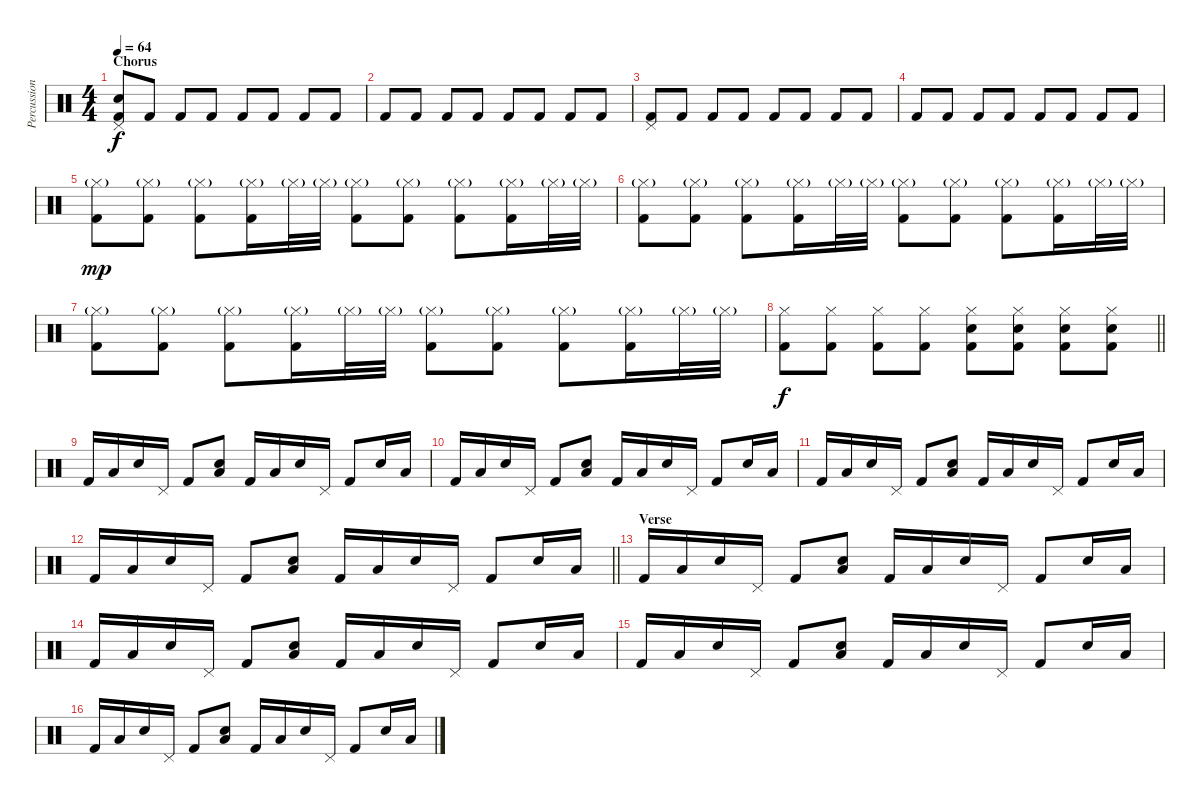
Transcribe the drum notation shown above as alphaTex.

\track ("Percussion" "Percussion") {instrument percussion}
\staff {score}
\articulation defaults
\ts (4 4)
\section ("" "Chorus")
\tempo 64
\clef neutral
\ks c
("Pedal Hi-Hat (hit)" "Snare (hit) 2" "Kick (hit) 2").8{dy f} "Kick (hit) 2".8 "Kick (hit) 2".8 "Kick (hit) 2".8 "Kick (hit) 2".8 "Kick (hit) 2".8 "Kick (hit) 2".8 "Kick (hit) 2".8 |
"Kick (hit) 2".8 "Kick (hit) 2".8 "Kick (hit) 2".8 "Kick (hit) 2".8 "Kick (hit) 2".8 "Kick (hit) 2".8 "Kick (hit) 2".8 "Kick (hit) 2".8 |
("Pedal Hi-Hat (hit)" "Kick (hit) 2").8 "Kick (hit) 2".8 "Kick (hit) 2".8 "Kick (hit) 2".8 "Kick (hit) 2".8 "Kick (hit) 2".8 "Kick (hit) 2".8 "Kick (hit) 2".8 |
"Kick (hit) 2".8 "Kick (hit) 2".8 "Kick (hit) 2".8 "Kick (hit) 2".8 "Kick (hit) 2".8 "Kick (hit) 2".8 "Kick (hit) 2".8 "Kick (hit) 2".8 |
("Hi-Hat (closed)"{g} "Kick (hit) 2").8{dy mp} ("Hi-Hat (closed)"{g} "Kick (hit) 2").8 ("Hi-Hat (closed)"{g} "Kick (hit) 2").8 ("Hi-Hat (closed)"{g} "Kick (hit) 2").16 "Hi-Hat (closed)"{g}.32 "Hi-Hat (closed)"{g}.32 ("Hi-Hat (closed)"{g} "Kick (hit) 2").8 ("Hi-Hat (closed)"{g} "Kick (hit) 2").8 ("Hi-Hat (closed)"{g} "Kick (hit) 2").8 ("Hi-Hat (closed)"{g} "Kick (hit) 2").16 "Hi-Hat (closed)"{g}.32 "Hi-Hat (closed)"{g}.32 |
("Hi-Hat (closed)"{g} "Kick (hit) 2").8 ("Hi-Hat (closed)"{g} "Kick (hit) 2").8 ("Hi-Hat (closed)"{g} "Kick (hit) 2").8 ("Hi-Hat (closed)"{g} "Kick (hit) 2").16 "Hi-Hat (closed)"{g}.32 "Hi-Hat (closed)"{g}.32 ("Hi-Hat (closed)"{g} "Kick (hit) 2").8 ("Hi-Hat (closed)"{g} "Kick (hit) 2").8 ("Hi-Hat (closed)"{g} "Kick (hit) 2").8 ("Hi-Hat (closed)"{g} "Kick (hit) 2").16 "Hi-Hat (closed)"{g}.32 "Hi-Hat (closed)"{g}.32 |
("Hi-Hat (closed)"{g} "Kick (hit) 2").8 ("Hi-Hat (closed)"{g} "Kick (hit) 2").8 ("Hi-Hat (closed)"{g} "Kick (hit) 2").8 ("Hi-Hat (closed)"{g} "Kick (hit) 2").16 "Hi-Hat (closed)"{g}.32 "Hi-Hat (closed)"{g}.32 ("Hi-Hat (closed)"{g} "Kick (hit) 2").8 ("Hi-Hat (closed)"{g} "Kick (hit) 2").8 ("Hi-Hat (closed)"{g} "Kick (hit) 2").8 ("Hi-Hat (closed)"{g} "Kick (hit) 2").16 "Hi-Hat (closed)"{g}.32 "Hi-Hat (closed)"{g}.32 |
\barLineRight lightlight
("Hi-Hat (closed)" "Kick (hit) 2").8{dy f} ("Hi-Hat (closed)" "Kick (hit) 2").8 ("Hi-Hat (closed)" "Kick (hit) 2").8 ("Hi-Hat (closed)" "Kick (hit) 2").8 ("Hi-Hat (closed)" "Snare (hit) 2" "Kick (hit) 2").8 ("Hi-Hat (closed)" "Snare (hit) 2" "Kick (hit) 2").8 ("Hi-Hat (closed)" "Snare (hit) 2" "Kick (hit) 2").8 ("Hi-Hat (closed)" "Snare (hit) 2" "Kick (hit) 2").8 |
"Kick (hit) 2".16 "Low Floor Tom (hit)".16 "Snare (hit) 2".16 "Pedal Hi-Hat (hit)".16 "Kick (hit) 2".8 ("Snare (hit) 2" "Low Floor Tom (hit)").8 "Kick (hit) 2".16 "Low Floor Tom (hit)".16 "Snare (hit) 2".16 "Pedal Hi-Hat (hit)".16 "Kick (hit) 2".8 "Snare (hit) 2".16 "Low Floor Tom (hit)".16 |
"Kick (hit) 2".16 "Low Floor Tom (hit)".16 "Snare (hit) 2".16 "Pedal Hi-Hat (hit)".16 "Kick (hit) 2".8 ("Snare (hit) 2" "Low Floor Tom (hit)").8 "Kick (hit) 2".16 "Low Floor Tom (hit)".16 "Snare (hit) 2".16 "Pedal Hi-Hat (hit)".16 "Kick (hit) 2".8 "Snare (hit) 2".16 "Low Floor Tom (hit)".16 |
"Kick (hit) 2".16 "Low Floor Tom (hit)".16 "Snare (hit) 2".16 "Pedal Hi-Hat (hit)".16 "Kick (hit) 2".8 ("Snare (hit) 2" "Low Floor Tom (hit)").8 "Kick (hit) 2".16 "Low Floor Tom (hit)".16 "Snare (hit) 2".16 "Pedal Hi-Hat (hit)".16 "Kick (hit) 2".8 "Snare (hit) 2".16 "Low Floor Tom (hit)".16 |
\barLineRight lightlight "Kick (hit) 2".16 "Low Floor Tom (hit)".16 "Snare (hit) 2".16 "Pedal Hi-Hat (hit)".16 "Kick (hit) 2".8
("Snare (hit) 2" "Low Floor Tom (hit)").8 "Kick (hit) 2".16 "Low Floor Tom (hit)".16 "Snare (hit) 2".16 "Pedal Hi-Hat (hit)".16 "Kick (hit) 2".8 "Snare (hit) 2".16 "Low Floor Tom (hit)".16 |
\section ("" "Verse")
"Kick (hit) 2".16 "Low Floor Tom (hit)".16 "Snare (hit) 2".16 "Pedal Hi-Hat (hit)".16 "Kick (hit) 2".8 ("Snare (hit) 2" "Low Floor Tom (hit)").8 "Kick (hit) 2".16 "Low Floor Tom (hit)".16 "Snare (hit) 2".16 "Pedal Hi-Hat (hit)".16 "Kick (hit) 2".8 "Snare (hit) 2".16 "Low Floor Tom (hit)".16 |
"Kick (hit) 2".16 "Low Floor Tom (hit)".16 "Snare (hit) 2".16 "Pedal Hi-Hat (hit)".16 "Kick (hit) 2".8 ("Snare (hit) 2" "Low Floor Tom (hit)").8 "Kick (hit) 2".16 "Low Floor Tom (hit)".16 "Snare (hit) 2".16 "Pedal Hi-Hat (hit)".16 "Kick (hit) 2".8 "Snare (hit) 2".16 "Low Floor Tom (hit)".16 |
"Kick (hit) 2".16 "Low Floor Tom (hit)".16 "Snare (hit) 2".16 "Pedal Hi-Hat (hit)".16 "Kick (hit) 2".8 ("Snare (hit) 2" "Low Floor Tom (hit)").8 "Kick (hit) 2".16 "Low Floor Tom (hit)".16 "Snare (hit) 2".16 "Pedal Hi-Hat (hit)".16 "Kick (hit) 2".8 "Snare (hit) 2".16 "Low Floor Tom (hit)".16 |
"Kick (hit) 2".16 "Low Floor Tom (hit)".16 "Snare (hit) 2".16 "Pedal Hi-Hat (hit)".16 "Kick (hit) 2".8 ("Snare (hit) 2" "Low Floor Tom (hit)").8 "Kick (hit) 2".16 "Low Floor Tom (hit)".16 "Snare (hit) 2".16 "Pedal Hi-Hat (hit)".16 "Kick (hit) 2".8 "Snare (hit) 2".16 "Low Floor Tom (hit)".16
